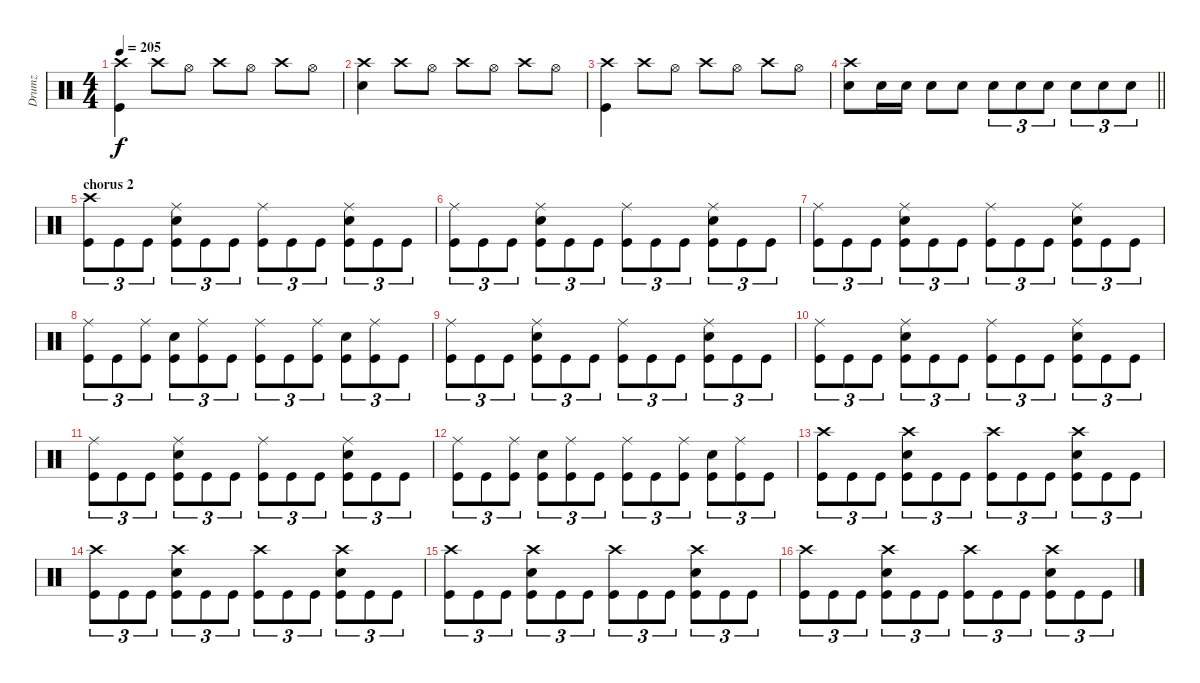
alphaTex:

\track ("Drumz" "Drumz") {instrument percussion}
\staff {score}
\articulation defaults
\ts (4 4)
\tempo 205
\clef neutral
\ks c
("Crash high (hit)" "Kick (hit)").4{dy f} "Crash high (hit)".8 "Hi-Hat (open)".8 "Crash high (hit)".8 "Hi-Hat (open)".8 "Crash high (hit)".8 "Hi-Hat (open)".8 |
("Crash high (hit)" "Electric Snare (hit)").4 "Crash high (hit)".8 "Hi-Hat (open)".8 "Crash high (hit)".8 "Hi-Hat (open)".8 "Crash high (hit)".8 "Hi-Hat (open)".8 |
("Crash high (hit)" "Kick (hit)").4 "Crash high (hit)".8 "Hi-Hat (open)".8 "Crash high (hit)".8 "Hi-Hat (open)".8 "Crash high (hit)".8 "Hi-Hat (open)".8 |
\barLineRight lightlight
("Crash high (hit)" "Electric Snare (hit)").8 "Electric Snare (hit)".16 "Electric Snare (hit)".16 "Electric Snare (hit)".8 "Electric Snare (hit)".8 "Electric Snare (hit)".8{tu (3 2)} "Electric Snare (hit)".8{tu (3 2)} "Electric Snare (hit)".8{tu (3 2)} "Electric Snare (hit)".8{tu (3 2)} "Electric Snare (hit)".8{tu (3 2)} "Electric Snare (hit)".8{tu (3 2)} |
\section ("" "chorus 2")
("Crash high (hit)" "Kick (hit)").8{tu (3 2)} "Kick (hit)".8{tu (3 2)} "Kick (hit)".8{tu (3 2)} ("Ride (middle)" "Electric Snare (hit)" "Kick (hit)").8{tu (3 2)} "Kick (hit)".8{tu (3 2)} "Kick (hit)".8{tu (3 2)} ("Ride (middle)" "Kick (hit)").8{tu (3 2)} "Kick (hit)".8{tu (3 2)} "Kick (hit)".8{tu (3 2)} ("Ride (middle)" "Electric Snare (hit)" "Kick (hit)").8{tu (3 2)} "Kick (hit)".8{tu (3 2)} "Kick (hit)".8{tu (3 2)} |
("Ride (middle)" "Kick (hit)").8{tu (3 2)} "Kick (hit)".8{tu (3 2)} "Kick (hit)".8{tu (3 2)} ("Ride (middle)" "Electric Snare (hit)" "Kick (hit)").8{tu (3 2)} "Kick (hit)".8{tu (3 2)} "Kick (hit)".8{tu (3 2)} ("Ride (middle)" "Kick (hit)").8{tu (3 2)} "Kick (hit)".8{tu (3 2)} "Kick (hit)".8{tu (3 2)} ("Ride (middle)" "Electric Snare (hit)" "Kick (hit)").8{tu (3 2)} "Kick (hit)".8{tu (3 2)} "Kick (hit)".8{tu (3 2)} |
("Ride (middle)" "Kick (hit)").8{tu (3 2)} "Kick (hit)".8{tu (3 2)} "Kick (hit)".8{tu (3 2)} ("Ride (middle)" "Electric Snare (hit)" "Kick (hit)").8{tu (3 2)} "Kick (hit)".8{tu (3 2)} "Kick (hit)".8{tu (3 2)} ("Ride (middle)" "Kick (hit)").8{tu (3 2)} "Kick (hit)".8{tu (3 2)} "Kick (hit)".8{tu (3 2)} ("Ride (middle)" "Electric Snare (hit)" "Kick (hit)").8{tu (3 2)} "Kick (hit)".8{tu (3 2)} "Kick (hit)".8{tu (3 2)} |
("Ride (middle)" "Kick (hit)").8{tu (3 2)} "Kick (hit)".8{tu (3 2)} ("Ride (middle)" "Kick (hit)").8{tu (3 2)} ("Electric Snare (hit)" "Kick (hit)").8{tu (3 2)} ("Ride (middle)" "Kick (hit)").8{tu (3 2)} "Kick (hit)".8{tu (3 2)} ("Ride (middle)" "Kick (hit)").8{tu (3 2)} "Kick (hit)".8{tu (3 2)} ("Ride (middle)" "Kick (hit)").8{tu (3 2)} ("Electric Snare (hit)" "Kick (hit)").8{tu (3 2)} ("Ride (middle)" "Kick (hit)").8{tu (3 2)} "Kick (hit)".8{tu (3 2)} |
("Ride (middle)" "Kick (hit)").8{tu (3 2)} "Kick (hit)".8{tu (3 2)} "Kick (hit)".8{tu (3 2)} ("Ride (middle)" "Electric Snare (hit)" "Kick (hit)").8{tu (3 2)} "Kick (hit)".8{tu (3 2)} "Kick (hit)".8{tu (3 2)} ("Ride (middle)" "Kick (hit)").8{tu (3 2)} "Kick (hit)".8{tu (3 2)} "Kick (hit)".8{tu (3 2)} ("Ride (middle)" "Electric Snare (hit)" "Kick (hit)").8{tu (3 2)} "Kick (hit)".8{tu (3 2)} "Kick (hit)".8{tu (3 2)} |
("Ride (middle)" "Kick (hit)").8{tu (3 2)} "Kick (hit)".8{tu (3 2)} "Kick (hit)".8{tu (3 2)} ("Ride (middle)" "Electric Snare (hit)" "Kick (hit)").8{tu (3 2)} "Kick (hit)".8{tu (3 2)} "Kick (hit)".8{tu (3 2)} ("Ride (middle)" "Kick (hit)").8{tu (3 2)} "Kick (hit)".8{tu (3 2)} "Kick (hit)".8{tu (3 2)} ("Ride (middle)" "Electric Snare (hit)" "Kick (hit)").8{tu (3 2)} "Kick (hit)".8{tu (3 2)} "Kick (hit)".8{tu (3 2)} |
("Ride (middle)" "Kick (hit)").8{tu (3 2)} "Kick (hit)".8{tu (3 2)} "Kick (hit)".8{tu (3 2)} ("Ride (middle)" "Electric Snare (hit)" "Kick (hit)").8{tu (3 2)} "Kick (hit)".8{tu (3 2)} "Kick (hit)".8{tu (3 2)} ("Ride (middle)" "Kick (hit)").8{tu (3 2)} "Kick (hit)".8{tu (3 2)} "Kick (hit)".8{tu (3 2)} ("Ride (middle)" "Electric Snare (hit)" "Kick (hit)").8{tu (3 2)} "Kick (hit)".8{tu (3 2)} "Kick (hit)".8{tu (3 2)} |
("Ride (middle)" "Kick (hit)").8{tu (3 2)} "Kick (hit)".8{tu (3 2)} ("Ride (middle)" "Kick (hit)").8{tu (3 2)} ("Electric Snare (hit)" "Kick (hit)").8{tu (3 2)} ("Ride (middle)" "Kick (hit)").8{tu (3 2)} "Kick (hit)".8{tu (3 2)} ("Ride (middle)" "Kick (hit)").8{tu (3 2)} "Kick (hit)".8{tu (3 2)} ("Ride (middle)" "Kick (hit)").8{tu (3 2)} ("Electric Snare (hit)" "Kick (hit)").8{tu (3 2)} ("Ride (middle)" "Kick (hit)").8{tu (3 2)} "Kick (hit)".8{tu (3 2)} |
("Crash high (hit)" "Kick (hit)").8{tu (3 2)} "Kick (hit)".8{tu (3 2)} "Kick (hit)".8{tu (3 2)} ("Crash high (hit)" "Electric Snare (hit)" "Kick (hit)").8{tu (3 2)} "Kick (hit)".8{tu (3 2)} "Kick (hit)".8{tu (3 2)} ("Crash high (hit)" "Kick (hit)").8{tu (3 2)} "Kick (hit)".8{tu (3 2)} "Kick (hit)".8{tu (3 2)} ("Crash high (hit)" "Electric Snare (hit)" "Kick (hit)").8{tu (3 2)} "Kick (hit)".8{tu (3 2)} "Kick (hit)".8{tu (3 2)} |
("Crash high (hit)" "Kick (hit)").8{tu (3 2)} "Kick (hit)".8{tu (3 2)} "Kick (hit)".8{tu (3 2)} ("Crash high (hit)" "Electric Snare (hit)" "Kick (hit)").8{tu (3 2)} "Kick (hit)".8{tu (3 2)} "Kick (hit)".8{tu (3 2)} ("Crash high (hit)" "Kick (hit)").8{tu (3 2)} "Kick (hit)".8{tu (3 2)} "Kick (hit)".8{tu (3 2)} ("Crash high (hit)" "Electric Snare (hit)" "Kick (hit)").8{tu (3 2)} "Kick (hit)".8{tu (3 2)} "Kick (hit)".8{tu (3 2)} |
("Crash high (hit)" "Kick (hit)").8{tu (3 2)} "Kick (hit)".8{tu (3 2)} "Kick (hit)".8{tu (3 2)} ("Crash high (hit)" "Electric Snare (hit)" "Kick (hit)").8{tu (3 2)} "Kick (hit)".8{tu (3 2)} "Kick (hit)".8{tu (3 2)} ("Crash high (hit)" "Kick (hit)").8{tu (3 2)} "Kick (hit)".8{tu (3 2)} "Kick (hit)".8{tu (3 2)} ("Crash high (hit)" "Electric Snare (hit)" "Kick (hit)").8{tu (3 2)} "Kick (hit)".8{tu (3 2)} "Kick (hit)".8{tu (3 2)} |
("Crash high (hit)" "Kick (hit)").8{tu (3 2)} "Kick (hit)".8{tu (3 2)} "Kick (hit)".8{tu (3 2)} ("Crash high (hit)" "Electric Snare (hit)" "Kick (hit)").8{tu (3 2)} "Kick (hit)".8{tu (3 2)} "Kick (hit)".8{tu (3 2)} ("Crash high (hit)" "Kick (hit)").8{tu (3 2)} "Kick (hit)".8{tu (3 2)} "Kick (hit)".8{tu (3 2)} ("Crash high (hit)" "Electric Snare (hit)" "Kick (hit)").8{tu (3 2)} "Kick (hit)".8{tu (3 2)} "Kick (hit)".8{tu (3 2)}
